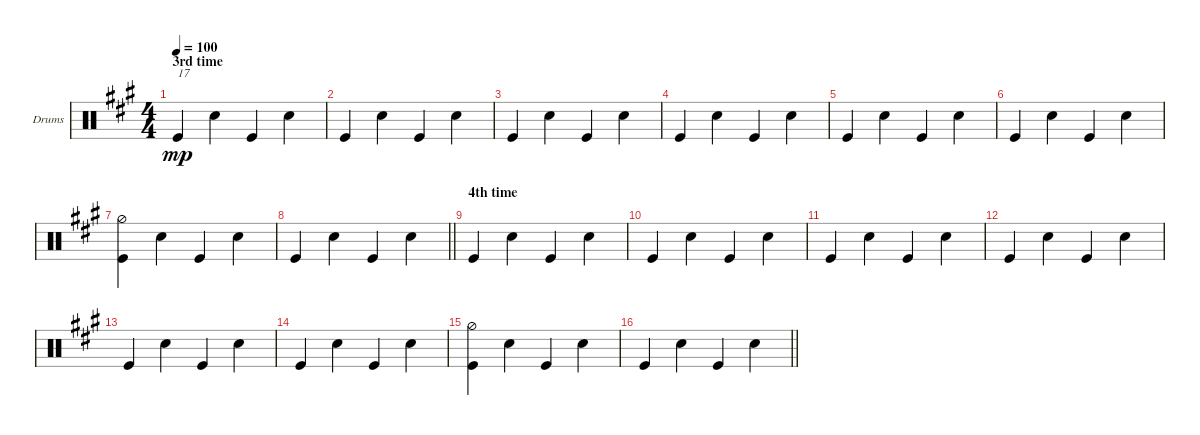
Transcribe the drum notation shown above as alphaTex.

\bracketExtendMode groupsimilarinstruments
\firstSystemTrackNameOrientation horizontal
\otherSystemsTrackNameOrientation horizontal
\track ("Drumkit" "Drums") {instrument percussion}
\staff {score}
\articulation defaults
\ts (4 4)
\section ("" "3rd time")
\tempo 100
\clef neutral
\scale
0.333333
\ks f#minor "Kick (hit)".4{txt "17" dy mp} "Snare (hit) 2".4 "Kick (hit)".4 "Snare (hit) 2".4
|
\scale
0.333333 "Kick (hit)".4 "Snare (hit) 2".4 "Kick (hit)".4 "Snare (hit) 2".4 |
\scale
0.333333 "Kick (hit)".4 "Snare (hit) 2".4 "Kick (hit)".4 "Snare (hit) 2".4 |
\scale
0.333333 "Kick (hit)".4 "Snare (hit) 2".4 "Kick (hit)".4 "Snare (hit) 2".4 |
\scale
0.333333 "Kick (hit)".4 "Snare (hit) 2".4 "Kick (hit)".4 "Snare (hit) 2".4 |
\scale
0.333333 "Kick (hit)".4 "Snare (hit) 2".4 "Kick (hit)".4 "Snare (hit) 2".4 |
\scale
0.333333 ("Kick (hit)" "Hi-Hat (half)").4 "Snare (hit) 2".4 "Kick (hit)".4 "Snare (hit) 2".4 |
\scale
0.333333
\barLineRight lightlight "Kick (hit)".4 "Snare (hit) 2".4 "Kick (hit)".4 "Snare (hit) 2".4
|
\section ("" "4th time")
\scale
0.333333 "Kick (hit)".4 "Snare (hit) 2".4 "Kick (hit)".4 "Snare (hit) 2".4 |
\scale
0.333333 "Kick (hit)".4 "Snare (hit) 2".4 "Kick (hit)".4 "Snare (hit) 2".4 |
\scale
0.333333 "Kick (hit)".4 "Snare (hit) 2".4 "Kick (hit)".4 "Snare (hit) 2".4 |
\scale
0.333333 "Kick (hit)".4 "Snare (hit) 2".4 "Kick (hit)".4 "Snare (hit) 2".4 |
\scale
0.333333 "Kick (hit)".4 "Snare (hit) 2".4 "Kick (hit)".4 "Snare (hit) 2".4 |
\scale
0.333333 "Kick (hit)".4 "Snare (hit) 2".4 "Kick (hit)".4 "Snare (hit) 2".4 |
\scale
0.333333 ("Kick (hit)" "Hi-Hat (half)").4 "Snare (hit) 2".4 "Kick (hit)".4 "Snare (hit) 2".4 |
\scale
0.333333
\barLineRight lightlight "Kick (hit)".4 "Snare (hit) 2".4 "Kick (hit)".4 "Snare (hit) 2".4
